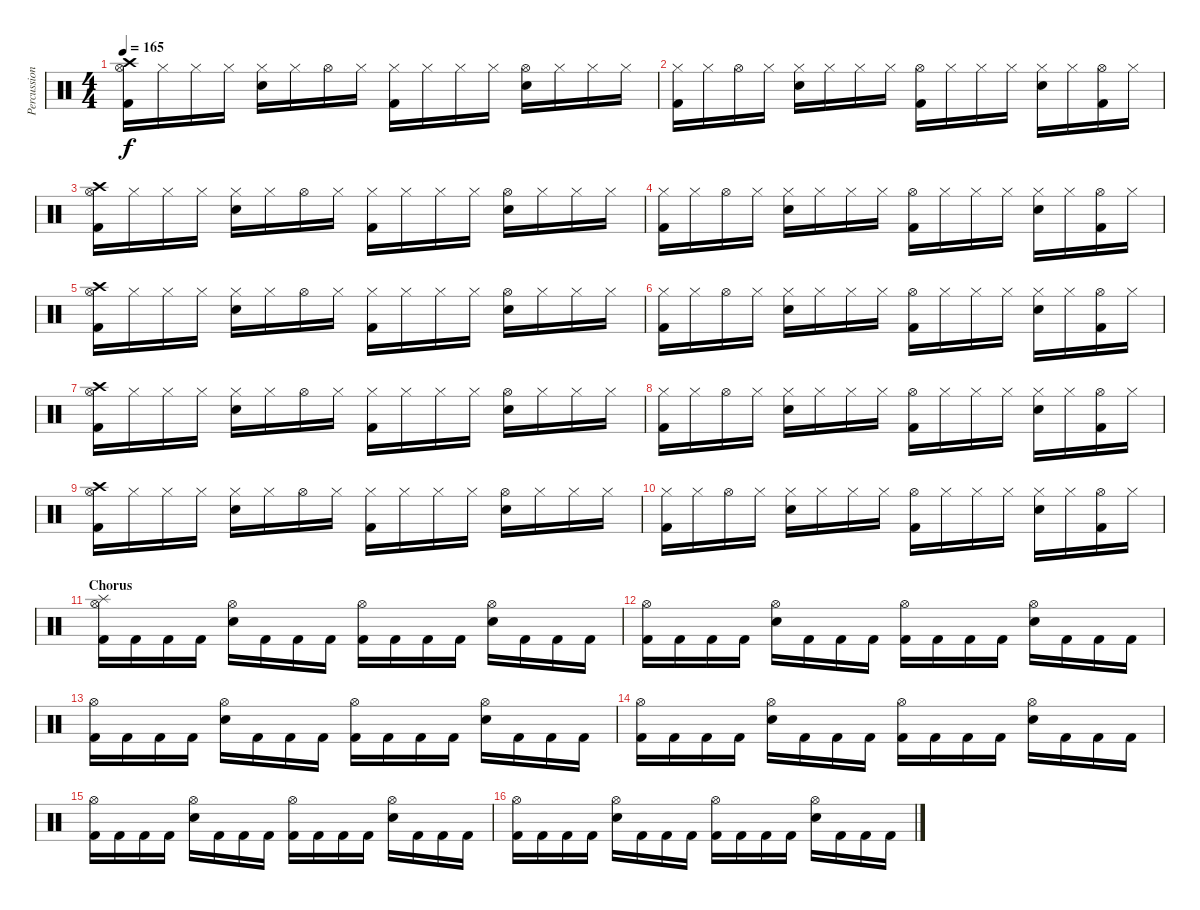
\track ("Percussions" "Percussion") {instrument percussion}
\staff {score}
\articulation defaults
\ts (4 4)
\tempo 165
\clef neutral
\ks c
("Hi-Hat (open)" "Crash high (hit)" "Kick (hit) 2").16{dy f} "Hi-Hat (closed)".16 "Hi-Hat (closed)".16 "Hi-Hat (closed)".16 ("Hi-Hat (closed)" "Electric Snare (hit)").16 "Hi-Hat (closed)".16 "Hi-Hat (open)".16 "Hi-Hat (closed)".16 ("Hi-Hat (closed)" "Kick (hit) 2").16 "Hi-Hat (closed)".16 "Hi-Hat (closed)".16 "Hi-Hat (closed)".16 ("Hi-Hat (open)" "Electric Snare (hit)").16 "Hi-Hat (closed)".16 "Hi-Hat (closed)".16 "Hi-Hat (closed)".16 |
("Hi-Hat (closed)" "Kick (hit) 2").16 "Hi-Hat (closed)".16 "Hi-Hat (open)".16 "Hi-Hat (closed)".16 ("Hi-Hat (closed)" "Electric Snare (hit)").16 "Hi-Hat (closed)".16 "Hi-Hat (closed)".16 "Hi-Hat (closed)".16 ("Hi-Hat (open)" "Kick (hit) 2").16 "Hi-Hat (closed)".16 "Hi-Hat (closed)".16 "Hi-Hat (closed)".16 ("Hi-Hat (closed)" "Electric Snare (hit)").16 "Hi-Hat (closed)".16 ("Hi-Hat (open)" "Kick (hit) 2").16 "Hi-Hat (closed)".16 |
("Hi-Hat (open)" "Crash high (hit)" "Kick (hit) 2").16 "Hi-Hat (closed)".16 "Hi-Hat (closed)".16 "Hi-Hat (closed)".16 ("Hi-Hat (closed)" "Electric Snare (hit)").16 "Hi-Hat (closed)".16 "Hi-Hat (open)".16 "Hi-Hat (closed)".16 ("Hi-Hat (closed)" "Kick (hit) 2").16 "Hi-Hat (closed)".16 "Hi-Hat (closed)".16 "Hi-Hat (closed)".16 ("Hi-Hat (open)" "Electric Snare (hit)").16 "Hi-Hat (closed)".16 "Hi-Hat (closed)".16 "Hi-Hat (closed)".16 |
("Hi-Hat (closed)" "Kick (hit) 2").16 "Hi-Hat (closed)".16 "Hi-Hat (open)".16 "Hi-Hat (closed)".16 ("Hi-Hat (closed)" "Electric Snare (hit)").16 "Hi-Hat (closed)".16 "Hi-Hat (closed)".16 "Hi-Hat (closed)".16 ("Hi-Hat (open)" "Kick (hit) 2").16 "Hi-Hat (closed)".16 "Hi-Hat (closed)".16 "Hi-Hat (closed)".16 ("Hi-Hat (closed)" "Electric Snare (hit)").16 "Hi-Hat (closed)".16 ("Hi-Hat (open)" "Kick (hit) 2").16 "Hi-Hat (closed)".16 |
("Hi-Hat (open)" "Crash high (hit)" "Kick (hit) 2").16 "Hi-Hat (closed)".16 "Hi-Hat (closed)".16 "Hi-Hat (closed)".16 ("Hi-Hat (closed)" "Electric Snare (hit)").16 "Hi-Hat (closed)".16 "Hi-Hat (open)".16 "Hi-Hat (closed)".16 ("Hi-Hat (closed)" "Kick (hit) 2").16 "Hi-Hat (closed)".16 "Hi-Hat (closed)".16 "Hi-Hat (closed)".16 ("Hi-Hat (open)" "Electric Snare (hit)").16 "Hi-Hat (closed)".16 "Hi-Hat (closed)".16 "Hi-Hat (closed)".16 |
("Hi-Hat (closed)" "Kick (hit) 2").16 "Hi-Hat (closed)".16 "Hi-Hat (open)".16 "Hi-Hat (closed)".16 ("Hi-Hat (closed)" "Electric Snare (hit)").16 "Hi-Hat (closed)".16 "Hi-Hat (closed)".16 "Hi-Hat (closed)".16 ("Hi-Hat (open)" "Kick (hit) 2").16 "Hi-Hat (closed)".16 "Hi-Hat (closed)".16 "Hi-Hat (closed)".16 ("Hi-Hat (closed)" "Electric Snare (hit)").16 "Hi-Hat (closed)".16 ("Hi-Hat (open)" "Kick (hit) 2").16 "Hi-Hat (closed)".16 |
("Hi-Hat (open)" "Crash high (hit)" "Kick (hit) 2").16 "Hi-Hat (closed)".16 "Hi-Hat (closed)".16 "Hi-Hat (closed)".16 ("Hi-Hat (closed)" "Electric Snare (hit)").16 "Hi-Hat (closed)".16 "Hi-Hat (open)".16 "Hi-Hat (closed)".16 ("Hi-Hat (closed)" "Kick (hit) 2").16 "Hi-Hat (closed)".16 "Hi-Hat (closed)".16 "Hi-Hat (closed)".16 ("Hi-Hat (open)" "Electric Snare (hit)").16 "Hi-Hat (closed)".16 "Hi-Hat (closed)".16 "Hi-Hat (closed)".16 |
("Hi-Hat (closed)" "Kick (hit) 2").16 "Hi-Hat (closed)".16 "Hi-Hat (open)".16 "Hi-Hat (closed)".16 ("Hi-Hat (closed)" "Electric Snare (hit)").16 "Hi-Hat (closed)".16 "Hi-Hat (closed)".16 "Hi-Hat (closed)".16 ("Hi-Hat (open)" "Kick (hit) 2").16 "Hi-Hat (closed)".16 "Hi-Hat (closed)".16 "Hi-Hat (closed)".16 ("Hi-Hat (closed)" "Electric Snare (hit)").16 "Hi-Hat (closed)".16 ("Hi-Hat (open)" "Kick (hit) 2").16 "Hi-Hat (closed)".16 |
("Hi-Hat (open)" "Crash high (hit)" "Kick (hit) 2").16 "Hi-Hat (closed)".16 "Hi-Hat (closed)".16 "Hi-Hat (closed)".16 ("Hi-Hat (closed)" "Electric Snare (hit)").16 "Hi-Hat (closed)".16 "Hi-Hat (open)".16 "Hi-Hat (closed)".16 ("Hi-Hat (closed)" "Kick (hit) 2").16 "Hi-Hat (closed)".16 "Hi-Hat (closed)".16 "Hi-Hat (closed)".16 ("Hi-Hat (open)" "Electric Snare (hit)").16 "Hi-Hat (closed)".16 "Hi-Hat (closed)".16 "Hi-Hat (closed)".16 |
("Hi-Hat (closed)" "Kick (hit) 2").16 "Hi-Hat (closed)".16 "Hi-Hat (open)".16 "Hi-Hat (closed)".16 ("Hi-Hat (closed)" "Electric Snare (hit)").16 "Hi-Hat (closed)".16 "Hi-Hat (closed)".16 "Hi-Hat (closed)".16 ("Hi-Hat (open)" "Kick (hit) 2").16 "Hi-Hat (closed)".16 "Hi-Hat (closed)".16 "Hi-Hat (closed)".16 ("Hi-Hat (closed)" "Electric Snare (hit)").16 "Hi-Hat (closed)".16 ("Hi-Hat (open)" "Kick (hit) 2").16 "Hi-Hat (closed)".16 |
\section ("" "Chorus")
("Splash (hit)" "Hi-Hat (open)" "Kick (hit) 2").16 "Kick (hit) 2".16 "Kick (hit) 2".16 "Kick (hit) 2".16 ("Hi-Hat (open)" "Electric Snare (hit)").16 "Kick (hit) 2".16 "Kick (hit) 2".16 "Kick (hit) 2".16 ("Hi-Hat (open)" "Kick (hit) 2").16 "Kick (hit) 2".16 "Kick (hit) 2".16 "Kick (hit) 2".16 ("Hi-Hat (open)" "Electric Snare (hit)").16 "Kick (hit) 2".16 "Kick (hit) 2".16 "Kick (hit) 2".16 |
("Hi-Hat (open)" "Kick (hit) 2").16 "Kick (hit) 2".16 "Kick (hit) 2".16 "Kick (hit) 2".16 ("Hi-Hat (open)" "Electric Snare (hit)").16 "Kick (hit) 2".16 "Kick (hit) 2".16 "Kick (hit) 2".16 ("Hi-Hat (open)" "Kick (hit) 2").16 "Kick (hit) 2".16 "Kick (hit) 2".16 "Kick (hit) 2".16 ("Hi-Hat (open)" "Electric Snare (hit)").16 "Kick (hit) 2".16 "Kick (hit) 2".16 "Kick (hit) 2".16 |
("Hi-Hat (open)" "Kick (hit) 2").16 "Kick (hit) 2".16 "Kick (hit) 2".16 "Kick (hit) 2".16 ("Hi-Hat (open)" "Electric Snare (hit)").16 "Kick (hit) 2".16 "Kick (hit) 2".16 "Kick (hit) 2".16 ("Hi-Hat (open)" "Kick (hit) 2").16 "Kick (hit) 2".16 "Kick (hit) 2".16 "Kick (hit) 2".16 ("Hi-Hat (open)" "Electric Snare (hit)").16 "Kick (hit) 2".16 "Kick (hit) 2".16 "Kick (hit) 2".16 |
("Hi-Hat (open)" "Kick (hit) 2").16 "Kick (hit) 2".16 "Kick (hit) 2".16 "Kick (hit) 2".16 ("Hi-Hat (open)" "Electric Snare (hit)").16 "Kick (hit) 2".16 "Kick (hit) 2".16 "Kick (hit) 2".16 ("Hi-Hat (open)" "Kick (hit) 2").16 "Kick (hit) 2".16 "Kick (hit) 2".16 "Kick (hit) 2".16 ("Hi-Hat (open)" "Electric Snare (hit)").16 "Kick (hit) 2".16 "Kick (hit) 2".16 "Kick (hit) 2".16 |
("Hi-Hat (open)" "Kick (hit) 2").16 "Kick (hit) 2".16 "Kick (hit) 2".16 "Kick (hit) 2".16 ("Hi-Hat (open)" "Electric Snare (hit)").16 "Kick (hit) 2".16 "Kick (hit) 2".16 "Kick (hit) 2".16 ("Hi-Hat (open)" "Kick (hit) 2").16 "Kick (hit) 2".16 "Kick (hit) 2".16 "Kick (hit) 2".16 ("Hi-Hat (open)" "Electric Snare (hit)").16 "Kick (hit) 2".16 "Kick (hit) 2".16 "Kick (hit) 2".16 |
("Hi-Hat (open)" "Kick (hit) 2").16 "Kick (hit) 2".16 "Kick (hit) 2".16 "Kick (hit) 2".16 ("Hi-Hat (open)" "Electric Snare (hit)").16 "Kick (hit) 2".16 "Kick (hit) 2".16 "Kick (hit) 2".16 ("Hi-Hat (open)" "Kick (hit) 2").16 "Kick (hit) 2".16 "Kick (hit) 2".16 "Kick (hit) 2".16 ("Hi-Hat (open)" "Electric Snare (hit)").16 "Kick (hit) 2".16 "Kick (hit) 2".16 "Kick (hit) 2".16
